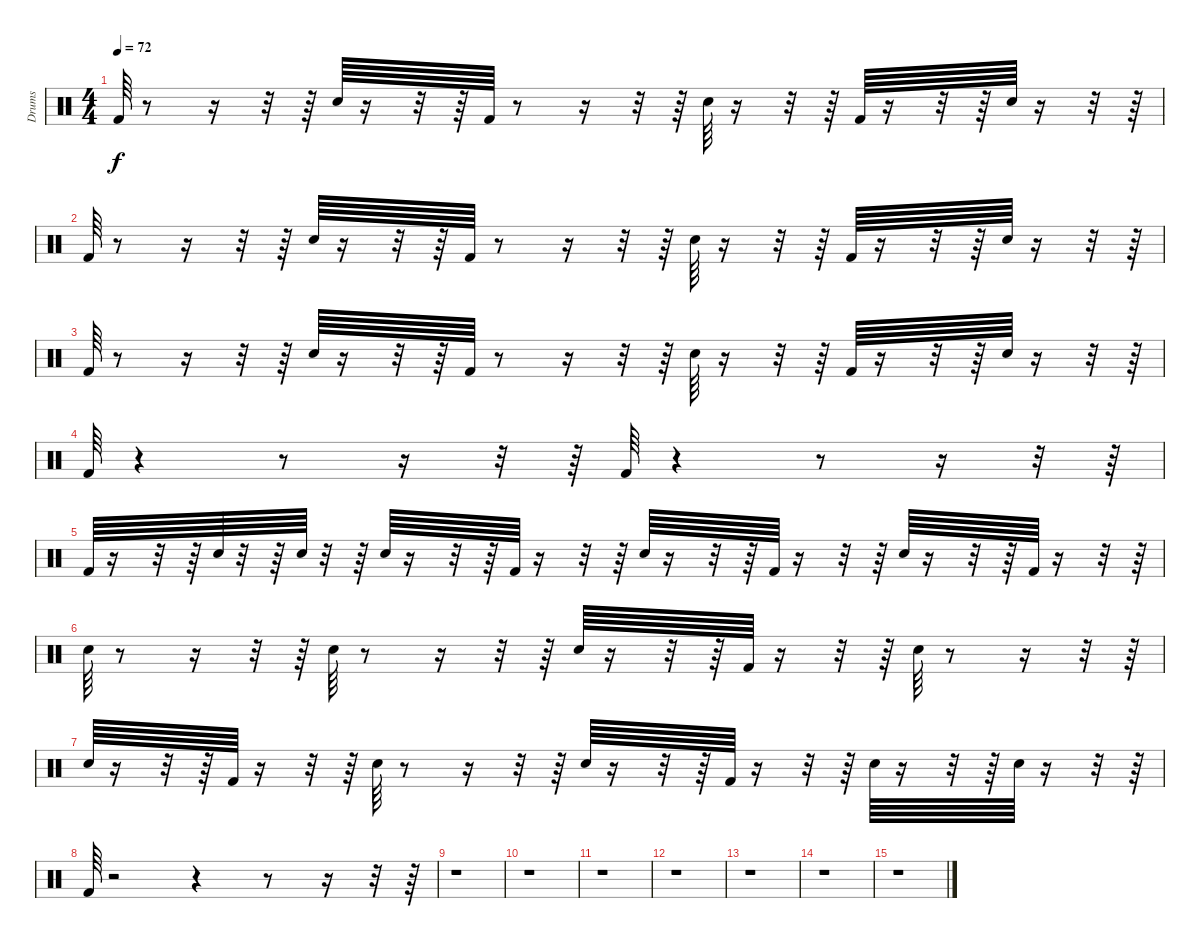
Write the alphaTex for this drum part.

\track ("Drums" "Drums") {instrument percussion}
\staff {score}
\articulation defaults
\ts (4 4)
\tempo 72
\clef neutral
\ks c "Kick (hit) 2".64{dy f}
r.8 r.16 r.32 r.64 "Snare (hit) 2".64 r.16 r.32 r.64 "Kick (hit) 2".64 r.8 r.16 r.32 r.64 "Snare (hit) 2".64 r.16 r.32 r.64 "Kick (hit) 2".64 r.16 r.32 r.64 "Snare (hit) 2".64 r.16 r.32 r.64 |
"Kick (hit) 2".64 r.8 r.16 r.32 r.64 "Snare (hit) 2".64 r.16 r.32 r.64 "Kick (hit) 2".64 r.8 r.16 r.32 r.64 "Snare (hit) 2".64 r.16 r.32 r.64 "Kick (hit) 2".64 r.16 r.32 r.64 "Snare (hit) 2".64 r.16 r.32 r.64 |
"Kick (hit) 2".64 r.8 r.16 r.32 r.64 "Snare (hit) 2".64 r.16 r.32 r.64 "Kick (hit) 2".64 r.8 r.16 r.32 r.64 "Snare (hit) 2".64 r.16 r.32 r.64 "Kick (hit) 2".64 r.16 r.32 r.64 "Snare (hit) 2".64 r.16 r.32 r.64 |
"Kick (hit) 2".64 r.4 r.8 r.16 r.32 r.64 "Kick (hit) 2".64 r.4 r.8 r.16 r.32 r.64 |
"Kick (hit) 2".64 r.16 r.32 r.64 "Snare (hit) 2".64 r.32 r.64 "Snare (hit) 2".64 r.32 r.64 "Snare (hit) 2".64 r.16 r.32 r.64 "Kick (hit) 2".64 r.16 r.32 r.64 "Snare (hit) 2".64 r.16 r.32 r.64 "Kick (hit) 2".64 r.16 r.32 r.64 "Snare (hit) 2".64 r.16 r.32 r.64 "Kick (hit) 2".64 r.16 r.32 r.64 |
"Snare (hit) 2".64 r.8 r.16 r.32 r.64 "Snare (hit) 2".64 r.8 r.16 r.32 r.64 "Snare (hit) 2".64 r.16 r.32 r.64 "Kick (hit) 2".64 r.16 r.32 r.64 "Snare (hit) 2".64 r.8 r.16 r.32 r.64 |
"Snare (hit) 2".64 r.16 r.32 r.64 "Kick (hit) 2".64 r.16 r.32 r.64 "Snare (hit) 2".64 r.8 r.16 r.32 r.64 "Snare (hit) 2".64 r.16 r.32 r.64 "Kick (hit) 2".64 r.16 r.32 r.64 "Snare (hit) 2".64 r.16 r.32 r.64 "Snare (hit) 2".64 r.16 r.32 r.64 |
"Kick (hit) 2".64 r.2 r.4 r.8 r.16 r.32 r.64 |
r.1 |
r.1 |
r.1 |
r.1 |
r.1 |
r.1 |
r.1
